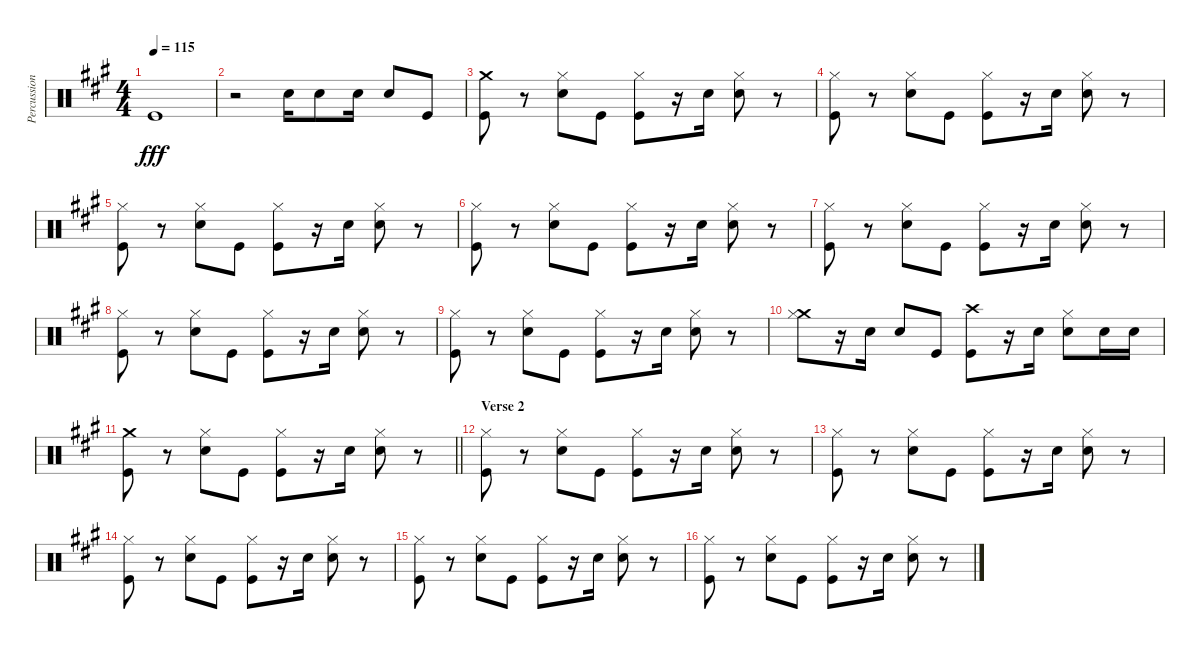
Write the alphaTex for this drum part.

\track ("Percussion" "Percussion") {instrument percussion}
\staff {score}
\articulation defaults
\ts (4 4)
\tempo 115
\clef neutral
\ks a "Kick (hit)".1{dy fff}
|
r.2 "Electric Snare (hit)".16 "Electric Snare (hit)".8 "Electric Snare (hit)".16 "Electric Snare (hit)".8 "Kick (hit)".8 |
("Kick (hit)" "Crash medium (hit)").8 r.8 ("Electric Snare (hit)" "Hi-Hat (closed)").8 "Kick (hit)".8 ("Kick (hit)" "Hi-Hat (closed)").8 r.16 "Electric Snare (hit)".16 ("Electric Snare (hit)" "Hi-Hat (closed)").8 r.8 |
("Kick (hit)" "Hi-Hat (closed)").8 r.8 ("Electric Snare (hit)" "Hi-Hat (closed)").8 "Kick (hit)".8 ("Kick (hit)" "Hi-Hat (closed)").8 r.16 "Electric Snare (hit)".16 ("Electric Snare (hit)" "Hi-Hat (closed)").8 r.8 |
("Kick (hit)" "Hi-Hat (closed)").8 r.8 ("Electric Snare (hit)" "Hi-Hat (closed)").8 "Kick (hit)".8 ("Kick (hit)" "Hi-Hat (closed)").8 r.16 "Electric Snare (hit)".16 ("Electric Snare (hit)" "Hi-Hat (closed)").8 r.8 |
("Kick (hit)" "Hi-Hat (closed)").8 r.8 ("Electric Snare (hit)" "Hi-Hat (closed)").8 "Kick (hit)".8 ("Kick (hit)" "Hi-Hat (closed)").8 r.16 "Electric Snare (hit)".16 ("Electric Snare (hit)" "Hi-Hat (closed)").8 r.8 |
("Kick (hit)" "Hi-Hat (closed)").8 r.8 ("Electric Snare (hit)" "Hi-Hat (closed)").8 "Kick (hit)".8 ("Kick (hit)" "Hi-Hat (closed)").8 r.16 "Electric Snare (hit)".16 ("Electric Snare (hit)" "Hi-Hat (closed)").8 r.8 |
("Kick (hit)" "Hi-Hat (closed)").8 r.8 ("Electric Snare (hit)" "Hi-Hat (closed)").8 "Kick (hit)".8 ("Kick (hit)" "Hi-Hat (closed)").8 r.16 "Electric Snare (hit)".16 ("Electric Snare (hit)" "Hi-Hat (closed)").8 r.8 |
("Kick (hit)" "Hi-Hat (closed)").8 r.8 ("Electric Snare (hit)" "Hi-Hat (closed)").8 "Kick (hit)".8 ("Kick (hit)" "Hi-Hat (closed)").8 r.16 "Electric Snare (hit)".16 ("Electric Snare (hit)" "Hi-Hat (closed)").8 r.8 |
("Crash medium (hit)" "Hi-Hat (closed)").8 r.16 "Electric Snare (hit)".16 "Electric Snare (hit)".8 "Kick (hit)".8 ("Kick (hit)" "Crash high (hit)").8 r.16 "Electric Snare (hit)".16 ("Electric Snare (hit)" "Hi-Hat (closed)").8 "Electric Snare (hit)".16 "Electric Snare (hit)".16 |
\barLineRight lightlight
("Kick (hit)" "Crash medium (hit)").8 r.8 ("Electric Snare (hit)" "Hi-Hat (closed)").8 "Kick (hit)".8 ("Kick (hit)" "Hi-Hat (closed)").8 r.16 "Electric Snare (hit)".16 ("Electric Snare (hit)" "Hi-Hat (closed)").8 r.8 |
\section ("" "Verse 2")
("Kick (hit)" "Hi-Hat (closed)").8 r.8 ("Electric Snare (hit)" "Hi-Hat (closed)").8 "Kick (hit)".8 ("Kick (hit)" "Hi-Hat (closed)").8 r.16 "Electric Snare (hit)".16 ("Electric Snare (hit)" "Hi-Hat (closed)").8 r.8 |
("Kick (hit)" "Hi-Hat (closed)").8 r.8 ("Electric Snare (hit)" "Hi-Hat (closed)").8 "Kick (hit)".8 ("Kick (hit)" "Hi-Hat (closed)").8 r.16 "Electric Snare (hit)".16 ("Electric Snare (hit)" "Hi-Hat (closed)").8 r.8 |
("Kick (hit)" "Hi-Hat (closed)").8 r.8 ("Electric Snare (hit)" "Hi-Hat (closed)").8 "Kick (hit)".8 ("Kick (hit)" "Hi-Hat (closed)").8 r.16 "Electric Snare (hit)".16 ("Electric Snare (hit)" "Hi-Hat (closed)").8 r.8 |
("Kick (hit)" "Hi-Hat (closed)").8 r.8 ("Electric Snare (hit)" "Hi-Hat (closed)").8 "Kick (hit)".8 ("Kick (hit)" "Hi-Hat (closed)").8 r.16 "Electric Snare (hit)".16 ("Electric Snare (hit)" "Hi-Hat (closed)").8 r.8 |
("Kick (hit)" "Hi-Hat (closed)").8 r.8 ("Electric Snare (hit)" "Hi-Hat (closed)").8 "Kick (hit)".8 ("Kick (hit)" "Hi-Hat (closed)").8 r.16 "Electric Snare (hit)".16 ("Electric Snare (hit)" "Hi-Hat (closed)").8 r.8
